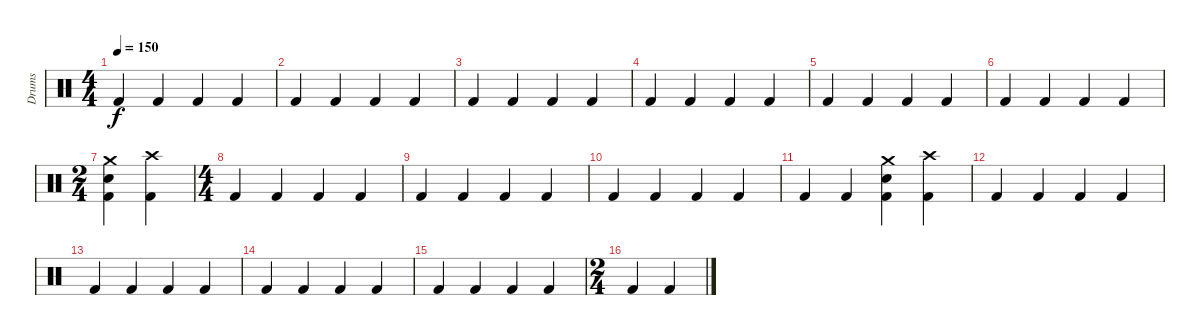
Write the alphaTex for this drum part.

\track ("Drums" "Drums") {instrument percussion}
\staff {score}
\articulation defaults
\ts (4 4)
\tempo 150
\clef neutral
\ks c "Kick (hit) 2".4{dy f} "Kick (hit) 2".4 "Kick (hit) 2".4 "Kick (hit) 2".4
|
"Kick (hit) 2".4 "Kick (hit) 2".4 "Kick (hit) 2".4 "Kick (hit) 2".4 |
"Kick (hit) 2".4 "Kick (hit) 2".4 "Kick (hit) 2".4 "Kick (hit) 2".4 |
"Kick (hit) 2".4 "Kick (hit) 2".4 "Kick (hit) 2".4 "Kick (hit) 2".4 |
"Kick (hit) 2".4 "Kick (hit) 2".4 "Kick (hit) 2".4 "Kick (hit) 2".4 |
"Kick (hit) 2".4 "Kick (hit) 2".4 "Kick (hit) 2".4 "Kick (hit) 2".4 |
\ts (2 4)
("Snare (hit) 2" "Kick (hit) 2" "Crash medium (hit)").4 ("Crash high (hit)" "Kick (hit) 2").4 |
\ts (4 4)
"Kick (hit) 2".4 "Kick (hit) 2".4 "Kick (hit) 2".4 "Kick (hit) 2".4 |
"Kick (hit) 2".4 "Kick (hit) 2".4 "Kick (hit) 2".4 "Kick (hit) 2".4 |
"Kick (hit) 2".4 "Kick (hit) 2".4 "Kick (hit) 2".4 "Kick (hit) 2".4 |
"Kick (hit) 2".4 "Kick (hit) 2".4 ("Kick (hit) 2" "Crash medium (hit)" "Snare (hit) 2").4 ("Crash high (hit)" "Kick (hit) 2").4 |
"Kick (hit) 2".4 "Kick (hit) 2".4 "Kick (hit) 2".4 "Kick (hit) 2".4 |
"Kick (hit) 2".4 "Kick (hit) 2".4 "Kick (hit) 2".4 "Kick (hit) 2".4 |
"Kick (hit) 2".4 "Kick (hit) 2".4 "Kick (hit) 2".4 "Kick (hit) 2".4 |
"Kick (hit) 2".4 "Kick (hit) 2".4 "Kick (hit) 2".4 "Kick (hit) 2".4 |
\ts (2 4)
"Kick (hit) 2".4 "Kick (hit) 2".4
